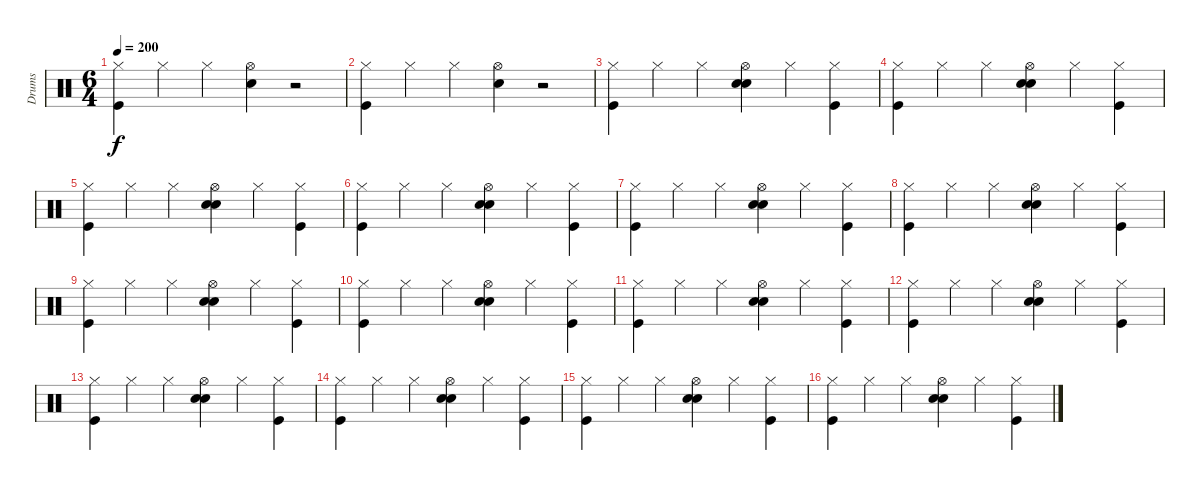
\track ("Drums" "Drums") {instrument percussion}
\staff {score}
\articulation defaults
\ts (6 4)
\tempo 200
\clef neutral
\ks c
("Hi-Hat (closed)" "Kick (hit)").4{dy f} "Hi-Hat (closed)".4 "Hi-Hat (closed)".4 ("Snare (hit) 2" "Hi-Hat (open)").4 r.2 |
("Hi-Hat (closed)" "Kick (hit)").4 "Hi-Hat (closed)".4 "Hi-Hat (closed)".4 ("Snare (hit) 2" "Hi-Hat (open)").4 r.2 |
("Hi-Hat (closed)" "Kick (hit)").4 "Hi-Hat (closed)".4 "Hi-Hat (closed)".4 ("Electric Snare (hit)" "Hand Clap (hit)" "Hi-Hat (open)").4 "Hi-Hat (closed)".4 ("Kick (hit)" "Hi-Hat (closed)").4 |
("Hi-Hat (closed)" "Kick (hit)").4 "Hi-Hat (closed)".4 "Hi-Hat (closed)".4 ("Electric Snare (hit)" "Hand Clap (hit)" "Hi-Hat (open)").4 "Hi-Hat (closed)".4 ("Kick (hit)" "Hi-Hat (closed)").4 |
("Hi-Hat (closed)" "Kick (hit)").4 "Hi-Hat (closed)".4 "Hi-Hat (closed)".4 ("Electric Snare (hit)" "Hand Clap (hit)" "Hi-Hat (open)").4 "Hi-Hat (closed)".4 ("Kick (hit)" "Hi-Hat (closed)").4 |
("Hi-Hat (closed)" "Kick (hit)").4 "Hi-Hat (closed)".4 "Hi-Hat (closed)".4 ("Electric Snare (hit)" "Hand Clap (hit)" "Hi-Hat (open)").4 "Hi-Hat (closed)".4 ("Kick (hit)" "Hi-Hat (closed)").4 |
("Hi-Hat (closed)" "Kick (hit)").4 "Hi-Hat (closed)".4 "Hi-Hat (closed)".4 ("Electric Snare (hit)" "Hand Clap (hit)" "Hi-Hat (open)").4 "Hi-Hat (closed)".4 ("Kick (hit)" "Hi-Hat (closed)").4 |
("Hi-Hat (closed)" "Kick (hit)").4 "Hi-Hat (closed)".4 "Hi-Hat (closed)".4 ("Electric Snare (hit)" "Hand Clap (hit)" "Hi-Hat (open)").4 "Hi-Hat (closed)".4 ("Kick (hit)" "Hi-Hat (closed)").4 |
("Hi-Hat (closed)" "Kick (hit)").4 "Hi-Hat (closed)".4 "Hi-Hat (closed)".4 ("Electric Snare (hit)" "Hand Clap (hit)" "Hi-Hat (open)").4 "Hi-Hat (closed)".4 ("Kick (hit)" "Hi-Hat (closed)").4 |
("Hi-Hat (closed)" "Kick (hit)").4 "Hi-Hat (closed)".4 "Hi-Hat (closed)".4 ("Electric Snare (hit)" "Hand Clap (hit)" "Hi-Hat (open)").4 "Hi-Hat (closed)".4 ("Kick (hit)" "Hi-Hat (closed)").4 |
("Hi-Hat (closed)" "Kick (hit)").4 "Hi-Hat (closed)".4 "Hi-Hat (closed)".4 ("Electric Snare (hit)" "Hand Clap (hit)" "Hi-Hat (open)").4 "Hi-Hat (closed)".4 ("Kick (hit)" "Hi-Hat (closed)").4 |
("Hi-Hat (closed)" "Kick (hit)").4 "Hi-Hat (closed)".4 "Hi-Hat (closed)".4 ("Electric Snare (hit)" "Hand Clap (hit)" "Hi-Hat (open)").4 "Hi-Hat (closed)".4 ("Kick (hit)" "Hi-Hat (closed)").4 |
("Hi-Hat (closed)" "Kick (hit)").4 "Hi-Hat (closed)".4 "Hi-Hat (closed)".4 ("Electric Snare (hit)" "Hand Clap (hit)" "Hi-Hat (open)").4 "Hi-Hat (closed)".4 ("Kick (hit)" "Hi-Hat (closed)").4 |
("Hi-Hat (closed)" "Kick (hit)").4 "Hi-Hat (closed)".4 "Hi-Hat (closed)".4 ("Electric Snare (hit)" "Hand Clap (hit)" "Hi-Hat (open)").4 "Hi-Hat (closed)".4 ("Kick (hit)" "Hi-Hat (closed)").4 |
("Hi-Hat (closed)" "Kick (hit)").4 "Hi-Hat (closed)".4 "Hi-Hat (closed)".4 ("Electric Snare (hit)" "Hand Clap (hit)" "Hi-Hat (open)").4 "Hi-Hat (closed)".4 ("Kick (hit)" "Hi-Hat (closed)").4 |
("Hi-Hat (closed)" "Kick (hit)").4 "Hi-Hat (closed)".4 "Hi-Hat (closed)".4 ("Electric Snare (hit)" "Hand Clap (hit)" "Hi-Hat (open)").4 "Hi-Hat (closed)".4 ("Kick (hit)" "Hi-Hat (closed)").4
